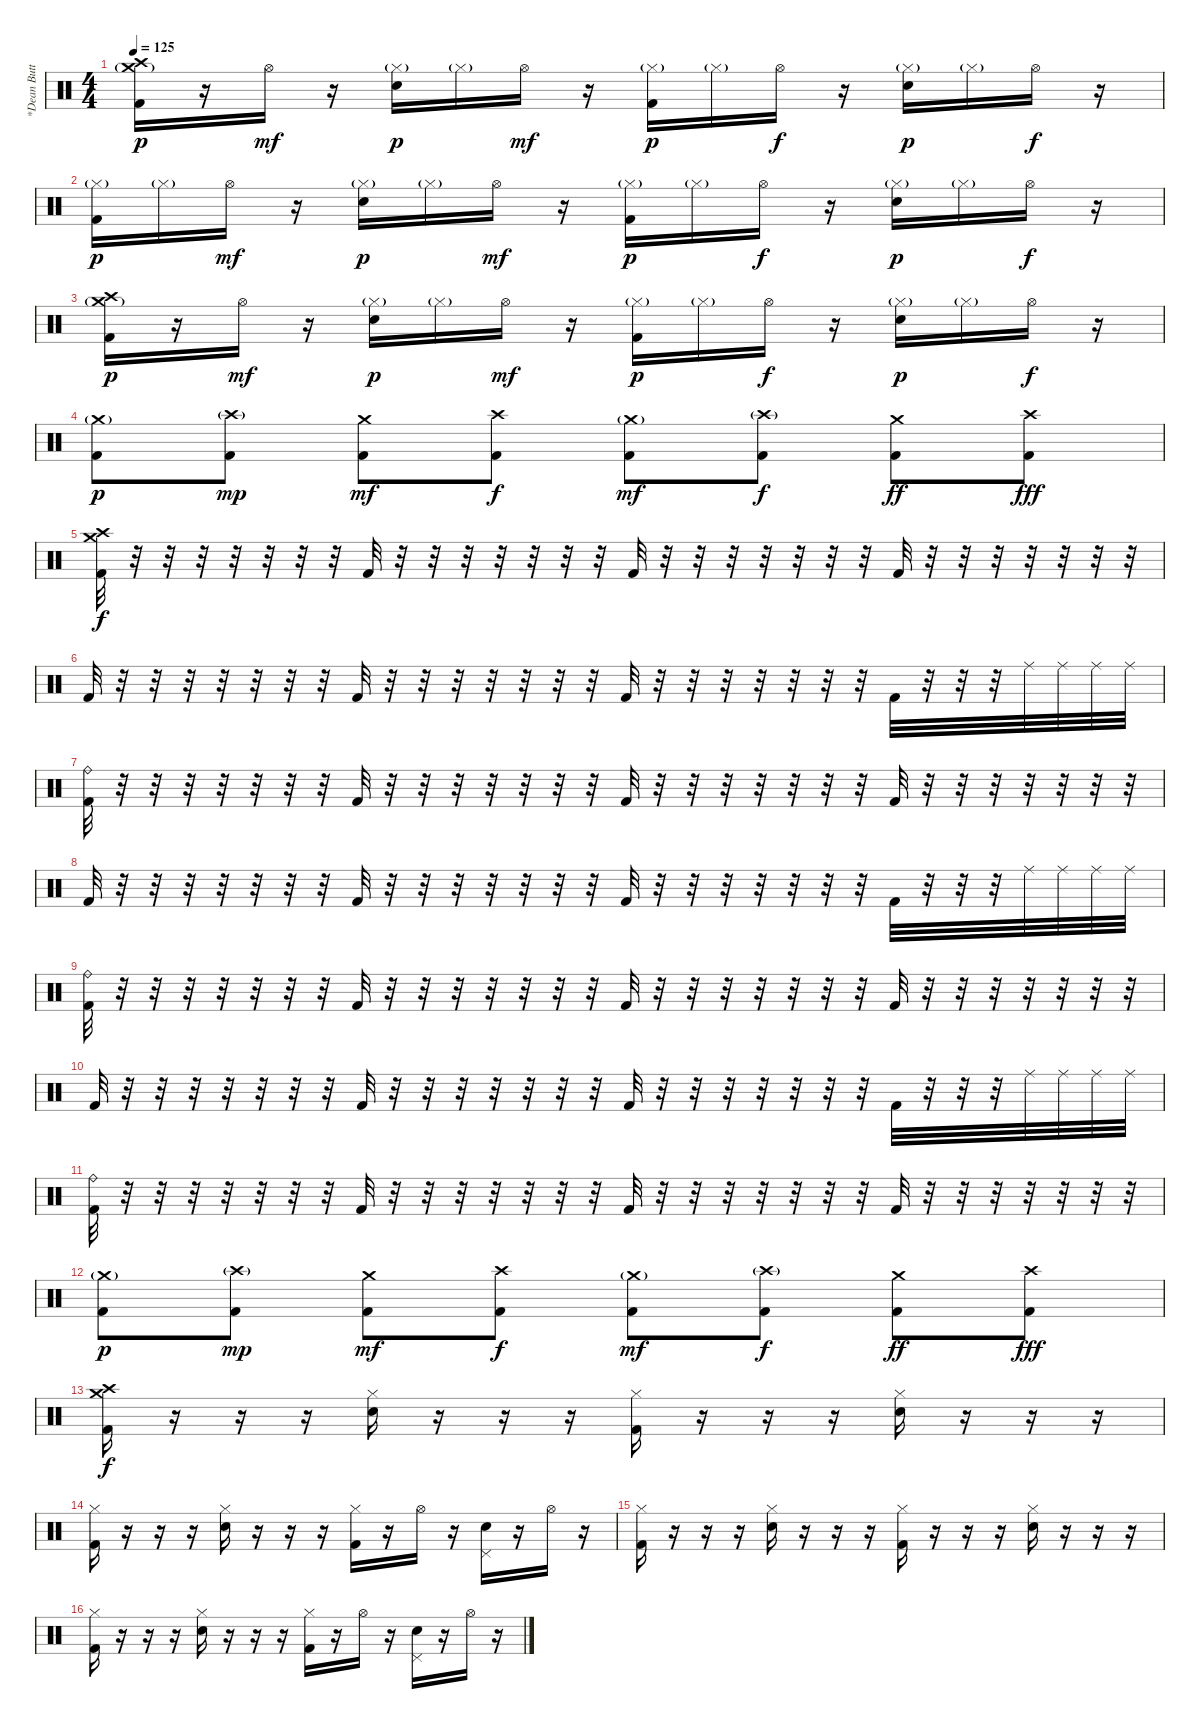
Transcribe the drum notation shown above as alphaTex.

\track ("*Dean Butterworth (Drum)" "*Dean Butt") {instrument percussion}
\staff {score}
\articulation defaults
\ts (4 4)
\tempo 125
\clef neutral
\ks c
("Crash high (hit)" "Crash medium (hit)"{g} "Kick (hit) 2").16{dy p} r.16 "Hi-Hat (open)".16{dy mf} r.16 ("Hi-Hat (closed)"{g} "Electric Snare (hit)").16{dy p} "Hi-Hat (closed)"{g}.16 "Hi-Hat (open)".16{dy mf} r.16 ("Hi-Hat (closed)"{g} "Kick (hit) 2").16{dy p} "Hi-Hat (closed)"{g}.16 "Hi-Hat (open)".16{dy f} r.16 ("Hi-Hat (closed)"{g} "Electric Snare (hit)").16{dy p} "Hi-Hat (closed)"{g}.16 "Hi-Hat (open)".16{dy f} r.16 |
("Hi-Hat (closed)"{g} "Kick (hit) 2").16{dy p} "Hi-Hat (closed)"{g}.16 "Hi-Hat (open)".16{dy mf} r.16 ("Hi-Hat (closed)"{g} "Electric Snare (hit)").16{dy p} "Hi-Hat (closed)"{g}.16 "Hi-Hat (open)".16{dy mf} r.16 ("Hi-Hat (closed)"{g} "Kick (hit) 2").16{dy p} "Hi-Hat (closed)"{g}.16 "Hi-Hat (open)".16{dy f} r.16 ("Hi-Hat (closed)"{g} "Electric Snare (hit)").16{dy p} "Hi-Hat (closed)"{g}.16 "Hi-Hat (open)".16{dy f} r.16 |
("Crash high (hit)" "Crash medium (hit)"{g} "Kick (hit) 2").16{dy p} r.16 "Hi-Hat (open)".16{dy mf} r.16 ("Hi-Hat (closed)"{g} "Electric Snare (hit)").16{dy p} "Hi-Hat (closed)"{g}.16 "Hi-Hat (open)".16{dy mf} r.16 ("Hi-Hat (closed)"{g} "Kick (hit) 2").16{dy p} "Hi-Hat (closed)"{g}.16 "Hi-Hat (open)".16{dy f} r.16 ("Hi-Hat (closed)"{g} "Electric Snare (hit)").16{dy p} "Hi-Hat (closed)"{g}.16 "Hi-Hat (open)".16{dy f} r.16 |
("Crash medium (hit)"{g} "Kick (hit) 2").8{dy p} ("Crash high (hit)"{g} "Kick (hit) 2").8{dy mp} ("Crash medium (hit)" "Kick (hit) 2").8{dy mf} ("Crash high (hit)" "Kick (hit) 2").8{dy f} ("Crash medium (hit)"{g} "Kick (hit) 2").8{dy mf} ("Crash high (hit)"{g} "Kick (hit) 2").8{dy f} ("Crash medium (hit)" "Kick (hit) 2").8{dy ff} ("Crash high (hit)" "Kick (hit) 2").8{dy fff} |
("Crash high (hit)" "Crash medium (hit)" "Kick (hit) 2").32{dy f} r.32 r.32 r.32 r.32 r.32 r.32 r.32 "Kick (hit) 2".32 r.32 r.32 r.32 r.32 r.32 r.32 r.32 "Kick (hit) 2".32 r.32 r.32 r.32 r.32 r.32 r.32 r.32 "Kick (hit) 2".32 r.32 r.32 r.32 r.32 r.32 r.32 r.32 |
"Kick (hit) 2".32 r.32 r.32 r.32 r.32 r.32 r.32 r.32 "Kick (hit) 2".32 r.32 r.32 r.32 r.32 r.32 r.32 r.32 "Kick (hit) 2".32 r.32 r.32 r.32 r.32 r.32 r.32 r.32 "Kick (hit) 2".32 r.32 r.32 r.32 "Ride (middle)".32 "Ride (middle)".32 "Ride (middle)".32 "Ride (middle)".32 |
("Ride (bell)" "Kick (hit) 2").32 r.32 r.32 r.32 r.32 r.32 r.32 r.32 "Kick (hit) 2".32 r.32 r.32 r.32 r.32 r.32 r.32 r.32 "Kick (hit) 2".32 r.32 r.32 r.32 r.32 r.32 r.32 r.32 "Kick (hit) 2".32 r.32 r.32 r.32 r.32 r.32 r.32 r.32 |
"Kick (hit) 2".32 r.32 r.32 r.32 r.32 r.32 r.32 r.32 "Kick (hit) 2".32 r.32 r.32 r.32 r.32 r.32 r.32 r.32 "Kick (hit) 2".32 r.32 r.32 r.32 r.32 r.32 r.32 r.32 "Kick (hit) 2".32 r.32 r.32 r.32 "Ride (middle)".32 "Ride (middle)".32 "Ride (middle)".32 "Ride (middle)".32 |
("Ride (bell)" "Kick (hit) 2").32 r.32 r.32 r.32 r.32 r.32 r.32 r.32 "Kick (hit) 2".32 r.32 r.32 r.32 r.32 r.32 r.32 r.32 "Kick (hit) 2".32 r.32 r.32 r.32 r.32 r.32 r.32 r.32 "Kick (hit) 2".32 r.32 r.32 r.32 r.32 r.32 r.32 r.32 |
"Kick (hit) 2".32 r.32 r.32 r.32 r.32 r.32 r.32 r.32 "Kick (hit) 2".32 r.32 r.32 r.32 r.32 r.32 r.32 r.32 "Kick (hit) 2".32 r.32 r.32 r.32 r.32 r.32 r.32 r.32 "Kick (hit) 2".32 r.32 r.32 r.32 "Ride (middle)".32 "Ride (middle)".32 "Ride (middle)".32 "Ride (middle)".32 |
("Ride (bell)" "Kick (hit) 2").32 r.32 r.32 r.32 r.32 r.32 r.32 r.32 "Kick (hit) 2".32 r.32 r.32 r.32 r.32 r.32 r.32 r.32 "Kick (hit) 2".32 r.32 r.32 r.32 r.32 r.32 r.32 r.32 "Kick (hit) 2".32 r.32 r.32 r.32 r.32 r.32 r.32 r.32 |
("Crash medium (hit)"{g} "Kick (hit) 2").8{dy p} ("Crash high (hit)"{g} "Kick (hit) 2").8{dy mp} ("Crash medium (hit)" "Kick (hit) 2").8{dy mf} ("Crash high (hit)" "Kick (hit) 2").8{dy f} ("Crash medium (hit)"{g} "Kick (hit) 2").8{dy mf} ("Crash high (hit)"{g} "Kick (hit) 2").8{dy f} ("Crash medium (hit)" "Kick (hit) 2").8{dy ff} ("Crash high (hit)" "Kick (hit) 2").8{dy fff} |
("Crash high (hit)" "Crash medium (hit)" "Kick (hit) 2").16{dy f} r.16 r.16 r.16 ("Hi-Hat (closed)" "Snare (hit) 2").16 r.16 r.16 r.16 ("Hi-Hat (closed)" "Kick (hit) 2").16 r.16 r.16 r.16 ("Hi-Hat (closed)" "Snare (hit) 2").16 r.16 r.16 r.16 |
("Hi-Hat (closed)" "Kick (hit) 2").16 r.16 r.16 r.16 ("Hi-Hat (closed)" "Snare (hit) 2").16 r.16 r.16 r.16 ("Hi-Hat (closed)" "Kick (hit) 2").16 r.16 "Hi-Hat (open)".16 r.16 ("Pedal Hi-Hat (hit)" "Snare (hit) 2").16 r.16 "Hi-Hat (open)".16 r.16 |
("Hi-Hat (closed)" "Kick (hit) 2").16 r.16 r.16 r.16 ("Hi-Hat (closed)" "Snare (hit) 2").16 r.16 r.16 r.16 ("Hi-Hat (closed)" "Kick (hit) 2").16 r.16 r.16 r.16 ("Hi-Hat (closed)" "Snare (hit) 2").16 r.16 r.16 r.16 |
("Hi-Hat (closed)" "Kick (hit) 2").16 r.16 r.16 r.16 ("Hi-Hat (closed)" "Snare (hit) 2").16 r.16 r.16 r.16 ("Hi-Hat (closed)" "Kick (hit) 2").16 r.16 "Hi-Hat (open)".16 r.16 ("Pedal Hi-Hat (hit)" "Snare (hit) 2").16 r.16 "Hi-Hat (open)".16 r.16
